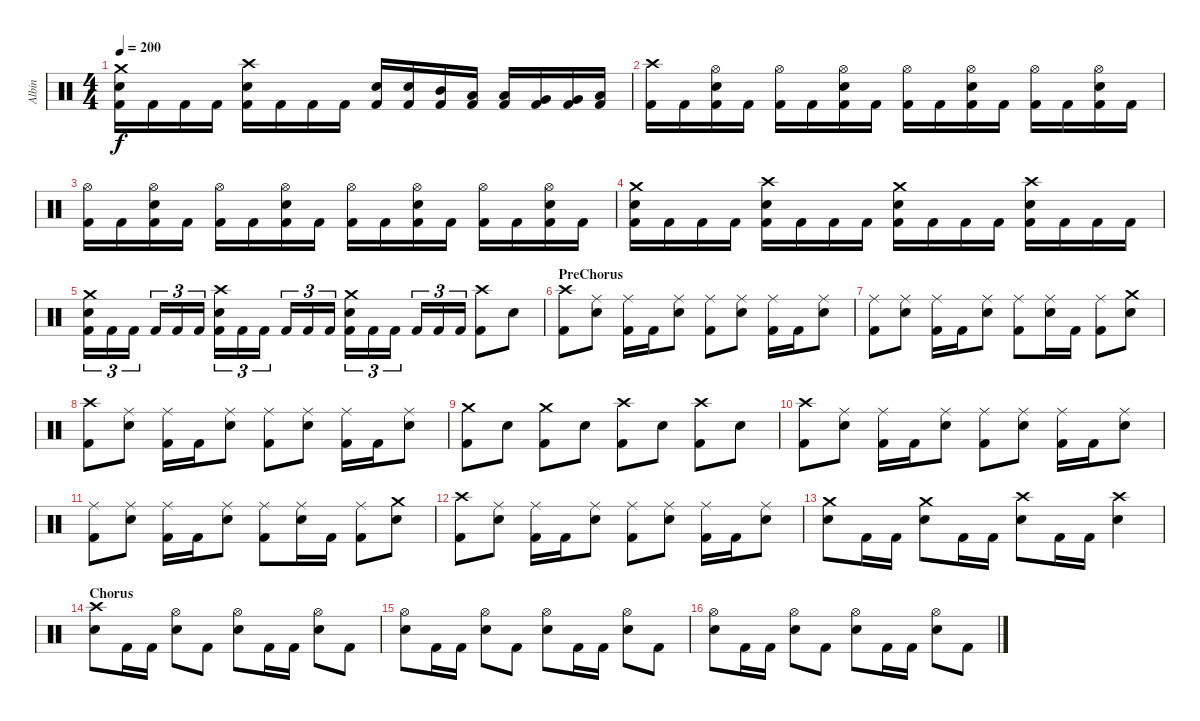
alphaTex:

\track ("Albin" "Albin") {instrument percussion}
\staff {score}
\articulation defaults
\ts (4 4)
\tempo 200
\clef neutral
\ks c
("Crash medium (hit)" "Snare (hit) 2" "Kick (hit) 2").16{dy f} "Kick (hit) 2".16 "Kick (hit) 2".16 "Kick (hit) 2".16 ("Crash high (hit)" "Snare (hit) 2" "Kick (hit) 2").16 "Kick (hit) 2".16 "Kick (hit) 2".16 "Kick (hit) 2".16 ("Snare (hit) 2" "Kick (hit) 2").16 ("Snare (hit) 2" "Kick (hit) 2").16 ("Mid Tom (hit)" "Kick (hit) 2").16 ("Low Tom (hit)" "Kick (hit) 2").16 ("Low Tom (hit)" "Kick (hit) 2").16 ("Very Low Tom (hit)" "Kick (hit) 2").16 ("Very Low Tom (hit)" "Kick (hit) 2").16 ("Low Floor Tom (hit)" "Kick (hit) 2").16 |
("Crash high (hit)" "Kick (hit) 2").16 "Kick (hit) 2".16 ("Hi-Hat (open)" "Snare (hit) 2" "Kick (hit) 2").16 "Kick (hit) 2".16 ("Hi-Hat (open)" "Kick (hit) 2").16 "Kick (hit) 2".16 ("Hi-Hat (open)" "Snare (hit) 2" "Kick (hit) 2").16 "Kick (hit) 2".16 ("Hi-Hat (open)" "Kick (hit) 2").16 "Kick (hit) 2".16 ("Hi-Hat (open)" "Snare (hit) 2" "Kick (hit) 2").16 "Kick (hit) 2".16 ("Hi-Hat (open)" "Kick (hit) 2").16 "Kick (hit) 2".16 ("Hi-Hat (open)" "Snare (hit) 2" "Kick (hit) 2").16 "Kick (hit) 2".16 |
("Hi-Hat (open)" "Kick (hit) 2").16 "Kick (hit) 2".16 ("Hi-Hat (open)" "Snare (hit) 2" "Kick (hit) 2").16 "Kick (hit) 2".16 ("Hi-Hat (open)" "Kick (hit) 2").16 "Kick (hit) 2".16 ("Hi-Hat (open)" "Snare (hit) 2" "Kick (hit) 2").16 "Kick (hit) 2".16 ("Hi-Hat (open)" "Kick (hit) 2").16 "Kick (hit) 2".16 ("Hi-Hat (open)" "Snare (hit) 2" "Kick (hit) 2").16 "Kick (hit) 2".16 ("Hi-Hat (open)" "Kick (hit) 2").16 "Kick (hit) 2".16 ("Hi-Hat (open)" "Snare (hit) 2" "Kick (hit) 2").16 "Kick (hit) 2".16 |
("Crash medium (hit)" "Snare (hit) 2" "Kick (hit) 2").16 "Kick (hit) 2".16 "Kick (hit) 2".16 "Kick (hit) 2".16 ("Crash high (hit)" "Snare (hit) 2" "Kick (hit) 2").16 "Kick (hit) 2".16 "Kick (hit) 2".16 "Kick (hit) 2".16 ("Crash medium (hit)" "Snare (hit) 2" "Kick (hit) 2").16 "Kick (hit) 2".16 "Kick (hit) 2".16 "Kick (hit) 2".16 ("Crash high (hit)" "Snare (hit) 2" "Kick (hit) 2").16 "Kick (hit) 2".16 "Kick (hit) 2".16 "Kick (hit) 2".16 |
("Crash medium (hit)" "Snare (hit) 2" "Kick (hit) 2").16{tu (3 2)} "Kick (hit) 2".16{tu (3 2)} "Kick (hit) 2".16{tu (3 2)} "Kick (hit) 2".16{tu (3 2)} "Kick (hit) 2".16{tu (3 2)} "Kick (hit) 2".16{tu (3 2)} ("Crash high (hit)" "Snare (hit) 2" "Kick (hit) 2").16{tu (3 2)} "Kick (hit) 2".16{tu (3 2)} "Kick (hit) 2".16{tu (3 2)} "Kick (hit) 2".16{tu (3 2)} "Kick (hit) 2".16{tu (3 2)} "Kick (hit) 2".16{tu (3 2)} ("Crash medium (hit)" "Snare (hit) 2" "Kick (hit) 2").16{tu (3 2)} "Kick (hit) 2".16{tu (3 2)} "Kick (hit) 2".16{tu (3 2)} "Kick (hit) 2".16{tu (3 2)} "Kick (hit) 2".16{tu (3 2)} "Kick (hit) 2".16{tu (3 2)} ("Crash high (hit)" "Kick (hit) 2").8 "Snare (hit) 2".8 |
\section ("" "PreChorus")
("Crash high (hit)" "Kick (hit) 2").8 ("Ride (middle)" "Snare (hit) 2").8 ("Ride (middle)" "Kick (hit) 2").16 "Kick (hit) 2".16 ("Ride (middle)" "Snare (hit) 2").8 ("Ride (middle)" "Kick (hit) 2").8 ("Ride (middle)" "Snare (hit) 2").8 ("Ride (middle)" "Kick (hit) 2").16 "Kick (hit) 2".16 ("Ride (middle)" "Snare (hit) 2").8 |
("Ride (middle)" "Kick (hit) 2").8 ("Ride (middle)" "Snare (hit) 2").8 ("Ride (middle)" "Kick (hit) 2").16 "Kick (hit) 2".16 ("Ride (middle)" "Snare (hit) 2").8 ("Ride (middle)" "Kick (hit) 2").8 ("Ride (middle)" "Snare (hit) 2").16 "Kick (hit) 2".16 ("Ride (middle)" "Kick (hit) 2").8 ("Crash medium (hit)" "Snare (hit) 2").8 |
("Crash high (hit)" "Kick (hit) 2").8 ("Ride (middle)" "Snare (hit) 2").8 ("Ride (middle)" "Kick (hit) 2").16 "Kick (hit) 2".16 ("Ride (middle)" "Snare (hit) 2").8 ("Ride (middle)" "Kick (hit) 2").8 ("Ride (middle)" "Snare (hit) 2").8 ("Ride (middle)" "Kick (hit) 2").16 "Kick (hit) 2".16 ("Ride (middle)" "Snare (hit) 2").8 |
("Crash medium (hit)" "Kick (hit) 2").8 "Snare (hit) 2".8 ("Crash medium (hit)" "Kick (hit) 2").8 "Snare (hit) 2".8 ("Crash high (hit)" "Kick (hit) 2").8 "Snare (hit) 2".8 ("Crash high (hit)" "Kick (hit) 2").8 "Snare (hit) 2".8 |
("Crash high (hit)" "Kick (hit) 2").8 ("Ride (middle)" "Snare (hit) 2").8 ("Ride (middle)" "Kick (hit) 2").16 "Kick (hit) 2".16 ("Ride (middle)" "Snare (hit) 2").8 ("Ride (middle)" "Kick (hit) 2").8 ("Ride (middle)" "Snare (hit) 2").8 ("Ride (middle)" "Kick (hit) 2").16 "Kick (hit) 2".16 ("Ride (middle)" "Snare (hit) 2").8 |
("Ride (middle)" "Kick (hit) 2").8 ("Ride (middle)" "Snare (hit) 2").8 ("Ride (middle)" "Kick (hit) 2").16 "Kick (hit) 2".16 ("Ride (middle)" "Snare (hit) 2").8 ("Ride (middle)" "Kick (hit) 2").8 ("Ride (middle)" "Snare (hit) 2").16 "Kick (hit) 2".16 ("Ride (middle)" "Kick (hit) 2").8 ("Crash medium (hit)" "Snare (hit) 2").8 |
("Crash high (hit)" "Kick (hit) 2").8 ("Ride (middle)" "Snare (hit) 2").8 ("Ride (middle)" "Kick (hit) 2").16 "Kick (hit) 2".16 ("Ride (middle)" "Snare (hit) 2").8 ("Ride (middle)" "Kick (hit) 2").8 ("Ride (middle)" "Snare (hit) 2").8 ("Ride (middle)" "Kick (hit) 2").16 "Kick (hit) 2".16 ("Ride (middle)" "Snare (hit) 2").8 |
("Crash medium (hit)" "Snare (hit) 2").8 "Kick (hit) 2".16 "Kick (hit) 2".16 ("Crash medium (hit)" "Snare (hit) 2").8 "Kick (hit) 2".16 "Kick (hit) 2".16 ("Crash high (hit)" "Snare (hit) 2").8 "Kick (hit) 2".16 "Kick (hit) 2".16 ("Crash high (hit)" "Snare (hit) 2").4 |
\section ("" "Chorus")
("Crash high (hit)" "Snare (hit) 2").8 "Kick (hit) 2".16 "Kick (hit) 2".16 ("Hi-Hat (open)" "Snare (hit) 2").8 "Kick (hit) 2".8 ("Hi-Hat (open)" "Snare (hit) 2").8 "Kick (hit) 2".16 "Kick (hit) 2".16 ("Hi-Hat (open)" "Snare (hit) 2").8 "Kick (hit) 2".8 |
("Hi-Hat (open)" "Snare (hit) 2").8 "Kick (hit) 2".16 "Kick (hit) 2".16 ("Hi-Hat (open)" "Snare (hit) 2").8 "Kick (hit) 2".8 ("Hi-Hat (open)" "Snare (hit) 2").8 "Kick (hit) 2".16 "Kick (hit) 2".16 ("Hi-Hat (open)" "Snare (hit) 2").8 "Kick (hit) 2".8 |
("Hi-Hat (open)" "Snare (hit) 2").8 "Kick (hit) 2".16 "Kick (hit) 2".16 ("Hi-Hat (open)" "Snare (hit) 2").8 "Kick (hit) 2".8 ("Hi-Hat (open)" "Snare (hit) 2").8 "Kick (hit) 2".16 "Kick (hit) 2".16 ("Hi-Hat (open)" "Snare (hit) 2").8 "Kick (hit) 2".8
